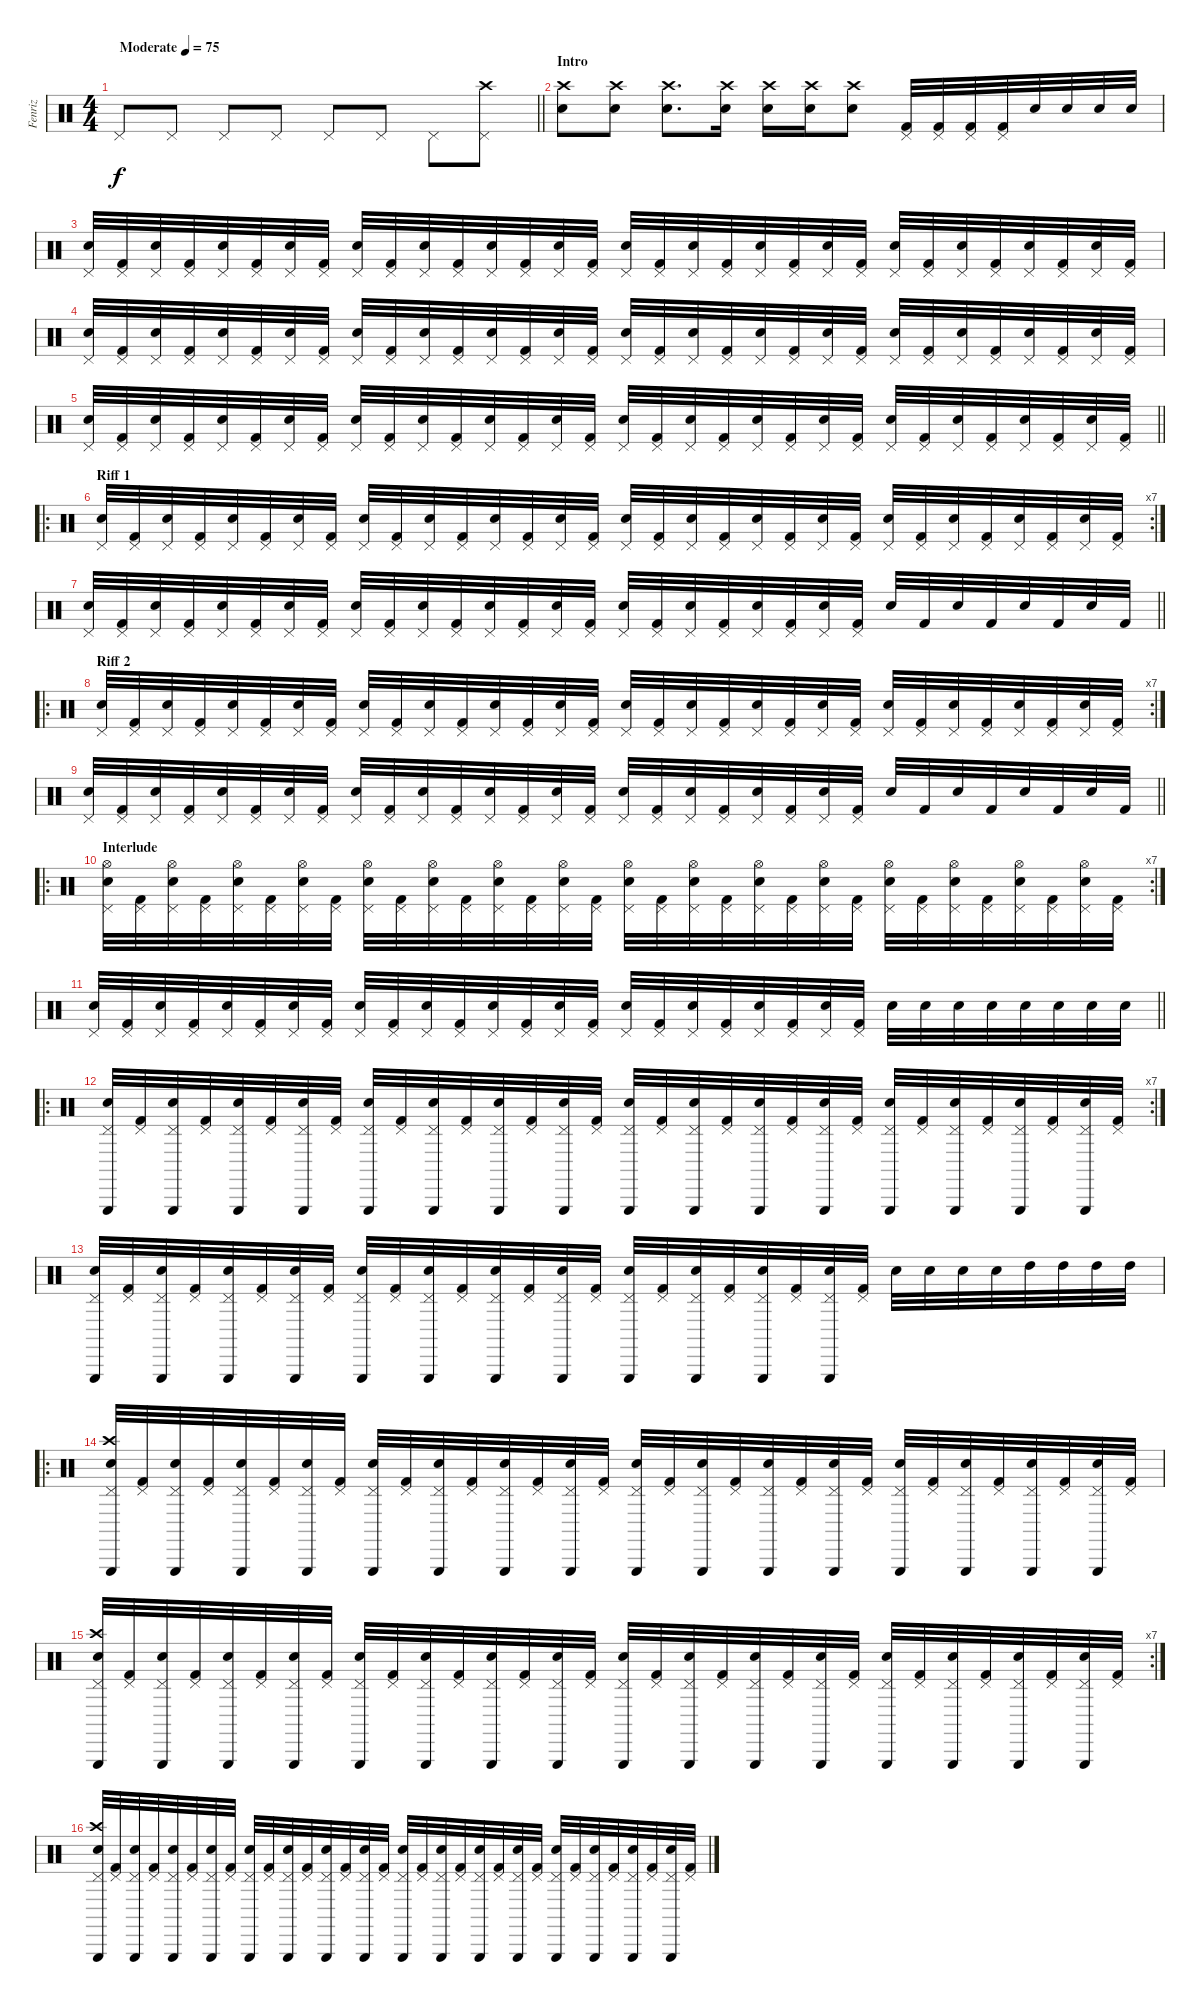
\track ("Fenriz" "Fenriz") {instrument percussion}
\staff {score}
\articulation defaults
\ts (4 4)
\tempo (75 "Moderate")
\clef neutral
\barLineRight lightlight
\ks c "Pedal Hi-Hat (hit)".8{dy f} "Pedal Hi-Hat (hit)".8 "Pedal Hi-Hat (hit)".8 "Pedal Hi-Hat (hit)".8 "Pedal Hi-Hat (hit)".8 "Pedal Hi-Hat (hit)".8 "Pedal Hi-Hat (hit)".8
("Pedal Hi-Hat (hit)" "Crash high (hit)").8 |
\section ("" "Intro")
("Snare (hit) 2" "Crash high (hit)").8 ("Snare (hit) 2" "Crash high (hit)").8 ("Snare (hit) 2" "Crash high (hit)").8{d} ("Crash high (hit)" "Snare (hit) 2").16 ("Crash high (hit)" "Snare (hit) 2").16 ("Crash high (hit)" "Snare (hit) 2").16 ("Crash high (hit)" "Snare (hit) 2").8 ("Kick (hit) 2" "Pedal Hi-Hat (hit)").32 ("Kick (hit) 2" "Pedal Hi-Hat (hit)").32 ("Kick (hit) 2" "Pedal Hi-Hat (hit)").32 ("Kick (hit) 2" "Pedal Hi-Hat (hit)").32 "Snare (hit) 2".32 "Snare (hit) 2".32 "Snare (hit) 2".32 "Snare (hit) 2".32 |
("Pedal Hi-Hat (hit)" "Snare (hit) 2").32 ("Pedal Hi-Hat (hit)" "Kick (hit) 2").32 ("Pedal Hi-Hat (hit)" "Snare (hit) 2").32 ("Pedal Hi-Hat (hit)" "Kick (hit) 2").32 ("Pedal Hi-Hat (hit)" "Snare (hit) 2").32 ("Pedal Hi-Hat (hit)" "Kick (hit) 2").32 ("Pedal Hi-Hat (hit)" "Snare (hit) 2").32 ("Pedal Hi-Hat (hit)" "Kick (hit) 2").32 ("Pedal Hi-Hat (hit)" "Snare (hit) 2").32 ("Pedal Hi-Hat (hit)" "Kick (hit) 2").32 ("Pedal Hi-Hat (hit)" "Snare (hit) 2").32 ("Pedal Hi-Hat (hit)" "Kick (hit) 2").32 ("Pedal Hi-Hat (hit)" "Snare (hit) 2").32 ("Pedal Hi-Hat (hit)" "Kick (hit) 2").32 ("Pedal Hi-Hat (hit)" "Snare (hit) 2").32 ("Pedal Hi-Hat (hit)" "Kick (hit) 2").32 ("Pedal Hi-Hat (hit)" "Snare (hit) 2").32 ("Pedal Hi-Hat (hit)" "Kick (hit) 2").32 ("Pedal Hi-Hat (hit)" "Snare (hit) 2").32 ("Pedal Hi-Hat (hit)" "Kick (hit) 2").32 ("Pedal Hi-Hat (hit)" "Snare (hit) 2").32 ("Pedal Hi-Hat (hit)" "Kick (hit) 2").32 ("Pedal Hi-Hat (hit)" "Snare (hit) 2").32 ("Pedal Hi-Hat (hit)" "Kick (hit) 2").32 ("Pedal Hi-Hat (hit)" "Snare (hit) 2").32 ("Pedal Hi-Hat (hit)" "Kick (hit) 2").32 ("Pedal Hi-Hat (hit)" "Snare (hit) 2").32 ("Pedal Hi-Hat (hit)" "Kick (hit) 2").32 ("Pedal Hi-Hat (hit)" "Snare (hit) 2").32 ("Pedal Hi-Hat (hit)" "Kick (hit) 2").32 ("Pedal Hi-Hat (hit)" "Snare (hit) 2").32 ("Pedal Hi-Hat (hit)" "Kick (hit) 2").32 |
("Pedal Hi-Hat (hit)" "Snare (hit) 2").32 ("Pedal Hi-Hat (hit)" "Kick (hit) 2").32 ("Pedal Hi-Hat (hit)" "Snare (hit) 2").32 ("Pedal Hi-Hat (hit)" "Kick (hit) 2").32 ("Pedal Hi-Hat (hit)" "Snare (hit) 2").32 ("Pedal Hi-Hat (hit)" "Kick (hit) 2").32 ("Pedal Hi-Hat (hit)" "Snare (hit) 2").32 ("Pedal Hi-Hat (hit)" "Kick (hit) 2").32 ("Pedal Hi-Hat (hit)" "Snare (hit) 2").32 ("Pedal Hi-Hat (hit)" "Kick (hit) 2").32 ("Pedal Hi-Hat (hit)" "Snare (hit) 2").32 ("Pedal Hi-Hat (hit)" "Kick (hit) 2").32 ("Pedal Hi-Hat (hit)" "Snare (hit) 2").32 ("Pedal Hi-Hat (hit)" "Kick (hit) 2").32 ("Pedal Hi-Hat (hit)" "Snare (hit) 2").32 ("Pedal Hi-Hat (hit)" "Kick (hit) 2").32 ("Pedal Hi-Hat (hit)" "Snare (hit) 2").32 ("Pedal Hi-Hat (hit)" "Kick (hit) 2").32 ("Pedal Hi-Hat (hit)" "Snare (hit) 2").32 ("Pedal Hi-Hat (hit)" "Kick (hit) 2").32 ("Pedal Hi-Hat (hit)" "Snare (hit) 2").32 ("Pedal Hi-Hat (hit)" "Kick (hit) 2").32 ("Pedal Hi-Hat (hit)" "Snare (hit) 2").32 ("Pedal Hi-Hat (hit)" "Kick (hit) 2").32 ("Pedal Hi-Hat (hit)" "Snare (hit) 2").32 ("Pedal Hi-Hat (hit)" "Kick (hit) 2").32 ("Pedal Hi-Hat (hit)" "Snare (hit) 2").32 ("Pedal Hi-Hat (hit)" "Kick (hit) 2").32 ("Pedal Hi-Hat (hit)" "Snare (hit) 2").32 ("Pedal Hi-Hat (hit)" "Kick (hit) 2").32 ("Pedal Hi-Hat (hit)" "Snare (hit) 2").32 ("Pedal Hi-Hat (hit)" "Kick (hit) 2").32 |
\barLineRight lightlight
("Pedal Hi-Hat (hit)" "Snare (hit) 2").32 ("Pedal Hi-Hat (hit)" "Kick (hit) 2").32 ("Pedal Hi-Hat (hit)" "Snare (hit) 2").32 ("Pedal Hi-Hat (hit)" "Kick (hit) 2").32 ("Pedal Hi-Hat (hit)" "Snare (hit) 2").32 ("Pedal Hi-Hat (hit)" "Kick (hit) 2").32 ("Pedal Hi-Hat (hit)" "Snare (hit) 2").32 ("Pedal Hi-Hat (hit)" "Kick (hit) 2").32 ("Pedal Hi-Hat (hit)" "Snare (hit) 2").32 ("Pedal Hi-Hat (hit)" "Kick (hit) 2").32 ("Pedal Hi-Hat (hit)" "Snare (hit) 2").32 ("Pedal Hi-Hat (hit)" "Kick (hit) 2").32 ("Pedal Hi-Hat (hit)" "Snare (hit) 2").32 ("Pedal Hi-Hat (hit)" "Kick (hit) 2").32 ("Pedal Hi-Hat (hit)" "Snare (hit) 2").32 ("Pedal Hi-Hat (hit)" "Kick (hit) 2").32 ("Pedal Hi-Hat (hit)" "Snare (hit) 2").32 ("Pedal Hi-Hat (hit)" "Kick (hit) 2").32 ("Pedal Hi-Hat (hit)" "Snare (hit) 2").32 ("Pedal Hi-Hat (hit)" "Kick (hit) 2").32 ("Pedal Hi-Hat (hit)" "Snare (hit) 2").32 ("Pedal Hi-Hat (hit)" "Kick (hit) 2").32 ("Pedal Hi-Hat (hit)" "Snare (hit) 2").32 ("Pedal Hi-Hat (hit)" "Kick (hit) 2").32 ("Pedal Hi-Hat (hit)" "Snare (hit) 2").32 ("Pedal Hi-Hat (hit)" "Kick (hit) 2").32 ("Pedal Hi-Hat (hit)" "Snare (hit) 2").32 ("Pedal Hi-Hat (hit)" "Kick (hit) 2").32 ("Pedal Hi-Hat (hit)" "Snare (hit) 2").32 ("Pedal Hi-Hat (hit)" "Kick (hit) 2").32 ("Pedal Hi-Hat (hit)" "Snare (hit) 2").32 ("Pedal Hi-Hat (hit)" "Kick (hit) 2").32 |
\ro
\rc 7
\section ("" "Riff 1")
("Pedal Hi-Hat (hit)" "Snare (hit) 2").32 ("Pedal Hi-Hat (hit)" "Kick (hit) 2").32 ("Pedal Hi-Hat (hit)" "Snare (hit) 2").32 ("Pedal Hi-Hat (hit)" "Kick (hit) 2").32 ("Pedal Hi-Hat (hit)" "Snare (hit) 2").32 ("Pedal Hi-Hat (hit)" "Kick (hit) 2").32 ("Pedal Hi-Hat (hit)" "Snare (hit) 2").32 ("Pedal Hi-Hat (hit)" "Kick (hit) 2").32 ("Pedal Hi-Hat (hit)" "Snare (hit) 2").32 ("Pedal Hi-Hat (hit)" "Kick (hit) 2").32 ("Pedal Hi-Hat (hit)" "Snare (hit) 2").32 ("Pedal Hi-Hat (hit)" "Kick (hit) 2").32 ("Pedal Hi-Hat (hit)" "Snare (hit) 2").32 ("Pedal Hi-Hat (hit)" "Kick (hit) 2").32 ("Pedal Hi-Hat (hit)" "Snare (hit) 2").32 ("Pedal Hi-Hat (hit)" "Kick (hit) 2").32 ("Pedal Hi-Hat (hit)" "Snare (hit) 2").32 ("Pedal Hi-Hat (hit)" "Kick (hit) 2").32 ("Pedal Hi-Hat (hit)" "Snare (hit) 2").32 ("Pedal Hi-Hat (hit)" "Kick (hit) 2").32 ("Pedal Hi-Hat (hit)" "Snare (hit) 2").32 ("Pedal Hi-Hat (hit)" "Kick (hit) 2").32 ("Pedal Hi-Hat (hit)" "Snare (hit) 2").32 ("Pedal Hi-Hat (hit)" "Kick (hit) 2").32 ("Pedal Hi-Hat (hit)" "Snare (hit) 2").32 ("Pedal Hi-Hat (hit)" "Kick (hit) 2").32 ("Pedal Hi-Hat (hit)" "Snare (hit) 2").32 ("Pedal Hi-Hat (hit)" "Kick (hit) 2").32 ("Pedal Hi-Hat (hit)" "Snare (hit) 2").32 ("Pedal Hi-Hat (hit)" "Kick (hit) 2").32 ("Pedal Hi-Hat (hit)" "Snare (hit) 2").32 ("Pedal Hi-Hat (hit)" "Kick (hit) 2").32 |
\barLineRight lightlight
("Pedal Hi-Hat (hit)" "Snare (hit) 2").32 ("Pedal Hi-Hat (hit)" "Kick (hit) 2").32 ("Pedal Hi-Hat (hit)" "Snare (hit) 2").32 ("Pedal Hi-Hat (hit)" "Kick (hit) 2").32 ("Pedal Hi-Hat (hit)" "Snare (hit) 2").32 ("Pedal Hi-Hat (hit)" "Kick (hit) 2").32 ("Pedal Hi-Hat (hit)" "Snare (hit) 2").32 ("Pedal Hi-Hat (hit)" "Kick (hit) 2").32 ("Pedal Hi-Hat (hit)" "Snare (hit) 2").32 ("Pedal Hi-Hat (hit)" "Kick (hit) 2").32 ("Pedal Hi-Hat (hit)" "Snare (hit) 2").32 ("Pedal Hi-Hat (hit)" "Kick (hit) 2").32 ("Pedal Hi-Hat (hit)" "Snare (hit) 2").32 ("Pedal Hi-Hat (hit)" "Kick (hit) 2").32 ("Pedal Hi-Hat (hit)" "Snare (hit) 2").32 ("Pedal Hi-Hat (hit)" "Kick (hit) 2").32 ("Pedal Hi-Hat (hit)" "Snare (hit) 2").32 ("Pedal Hi-Hat (hit)" "Kick (hit) 2").32 ("Pedal Hi-Hat (hit)" "Snare (hit) 2").32 ("Pedal Hi-Hat (hit)" "Kick (hit) 2").32 ("Pedal Hi-Hat (hit)" "Snare (hit) 2").32 ("Pedal Hi-Hat (hit)" "Kick (hit) 2").32 ("Pedal Hi-Hat (hit)" "Snare (hit) 2").32 ("Pedal Hi-Hat (hit)" "Kick (hit) 2").32 "Snare (hit) 2".32 "Kick (hit) 2".32 "Snare (hit) 2".32 "Kick (hit) 2".32 "Snare (hit) 2".32 "Kick (hit) 2".32 "Snare (hit) 2".32 "Kick (hit) 2".32 |
\ro
\rc 7
\section ("" "Riff 2")
("Pedal Hi-Hat (hit)" "Snare (hit) 2").32 ("Pedal Hi-Hat (hit)" "Kick (hit) 2").32 ("Pedal Hi-Hat (hit)" "Snare (hit) 2").32 ("Pedal Hi-Hat (hit)" "Kick (hit) 2").32 ("Pedal Hi-Hat (hit)" "Snare (hit) 2").32 ("Pedal Hi-Hat (hit)" "Kick (hit) 2").32 ("Pedal Hi-Hat (hit)" "Snare (hit) 2").32 ("Pedal Hi-Hat (hit)" "Kick (hit) 2").32 ("Pedal Hi-Hat (hit)" "Snare (hit) 2").32 ("Pedal Hi-Hat (hit)" "Kick (hit) 2").32 ("Pedal Hi-Hat (hit)" "Snare (hit) 2").32 ("Pedal Hi-Hat (hit)" "Kick (hit) 2").32 ("Pedal Hi-Hat (hit)" "Snare (hit) 2").32 ("Pedal Hi-Hat (hit)" "Kick (hit) 2").32 ("Pedal Hi-Hat (hit)" "Snare (hit) 2").32 ("Pedal Hi-Hat (hit)" "Kick (hit) 2").32 ("Pedal Hi-Hat (hit)" "Snare (hit) 2").32 ("Pedal Hi-Hat (hit)" "Kick (hit) 2").32 ("Pedal Hi-Hat (hit)" "Snare (hit) 2").32 ("Pedal Hi-Hat (hit)" "Kick (hit) 2").32 ("Pedal Hi-Hat (hit)" "Snare (hit) 2").32 ("Pedal Hi-Hat (hit)" "Kick (hit) 2").32 ("Pedal Hi-Hat (hit)" "Snare (hit) 2").32 ("Pedal Hi-Hat (hit)" "Kick (hit) 2").32 ("Pedal Hi-Hat (hit)" "Snare (hit) 2").32 ("Pedal Hi-Hat (hit)" "Kick (hit) 2").32 ("Pedal Hi-Hat (hit)" "Snare (hit) 2").32 ("Pedal Hi-Hat (hit)" "Kick (hit) 2").32 ("Pedal Hi-Hat (hit)" "Snare (hit) 2").32 ("Pedal Hi-Hat (hit)" "Kick (hit) 2").32 ("Pedal Hi-Hat (hit)" "Snare (hit) 2").32 ("Pedal Hi-Hat (hit)" "Kick (hit) 2").32 |
\barLineRight lightlight
("Pedal Hi-Hat (hit)" "Snare (hit) 2").32 ("Pedal Hi-Hat (hit)" "Kick (hit) 2").32 ("Pedal Hi-Hat (hit)" "Snare (hit) 2").32 ("Pedal Hi-Hat (hit)" "Kick (hit) 2").32 ("Pedal Hi-Hat (hit)" "Snare (hit) 2").32 ("Pedal Hi-Hat (hit)" "Kick (hit) 2").32 ("Pedal Hi-Hat (hit)" "Snare (hit) 2").32 ("Pedal Hi-Hat (hit)" "Kick (hit) 2").32 ("Pedal Hi-Hat (hit)" "Snare (hit) 2").32 ("Pedal Hi-Hat (hit)" "Kick (hit) 2").32 ("Pedal Hi-Hat (hit)" "Snare (hit) 2").32 ("Pedal Hi-Hat (hit)" "Kick (hit) 2").32 ("Pedal Hi-Hat (hit)" "Snare (hit) 2").32 ("Pedal Hi-Hat (hit)" "Kick (hit) 2").32 ("Pedal Hi-Hat (hit)" "Snare (hit) 2").32 ("Pedal Hi-Hat (hit)" "Kick (hit) 2").32 ("Pedal Hi-Hat (hit)" "Snare (hit) 2").32 ("Pedal Hi-Hat (hit)" "Kick (hit) 2").32 ("Pedal Hi-Hat (hit)" "Snare (hit) 2").32 ("Pedal Hi-Hat (hit)" "Kick (hit) 2").32 ("Pedal Hi-Hat (hit)" "Snare (hit) 2").32 ("Pedal Hi-Hat (hit)" "Kick (hit) 2").32 ("Pedal Hi-Hat (hit)" "Snare (hit) 2").32 ("Pedal Hi-Hat (hit)" "Kick (hit) 2").32 "Snare (hit) 2".32 "Kick (hit) 2".32 "Snare (hit) 2".32 "Kick (hit) 2".32 "Snare (hit) 2".32 "Kick (hit) 2".32 "Snare (hit) 2".32 "Kick (hit) 2".32 |
\ro
\rc 7
\section ("" "Interlude")
("Pedal Hi-Hat (hit)" "Snare (hit) 2" "Hi-Hat (open)").32 ("Pedal Hi-Hat (hit)" "Kick (hit) 2").32 ("Pedal Hi-Hat (hit)" "Snare (hit) 2" "Hi-Hat (open)").32 ("Pedal Hi-Hat (hit)" "Kick (hit) 2").32 ("Pedal Hi-Hat (hit)" "Snare (hit) 2" "Hi-Hat (open)").32 ("Pedal Hi-Hat (hit)" "Kick (hit) 2").32 ("Pedal Hi-Hat (hit)" "Snare (hit) 2" "Hi-Hat (open)").32 ("Pedal Hi-Hat (hit)" "Kick (hit) 2").32 ("Pedal Hi-Hat (hit)" "Snare (hit) 2" "Hi-Hat (open)").32 ("Pedal Hi-Hat (hit)" "Kick (hit) 2").32 ("Pedal Hi-Hat (hit)" "Snare (hit) 2" "Hi-Hat (open)").32 ("Pedal Hi-Hat (hit)" "Kick (hit) 2").32 ("Pedal Hi-Hat (hit)" "Snare (hit) 2" "Hi-Hat (open)").32 ("Pedal Hi-Hat (hit)" "Kick (hit) 2").32 ("Pedal Hi-Hat (hit)" "Snare (hit) 2" "Hi-Hat (open)").32 ("Pedal Hi-Hat (hit)" "Kick (hit) 2").32 ("Pedal Hi-Hat (hit)" "Snare (hit) 2" "Hi-Hat (open)").32 ("Pedal Hi-Hat (hit)" "Kick (hit) 2").32 ("Pedal Hi-Hat (hit)" "Snare (hit) 2" "Hi-Hat (open)").32 ("Pedal Hi-Hat (hit)" "Kick (hit) 2").32 ("Pedal Hi-Hat (hit)" "Snare (hit) 2" "Hi-Hat (open)").32 ("Pedal Hi-Hat (hit)" "Kick (hit) 2").32 ("Pedal Hi-Hat (hit)" "Snare (hit) 2" "Hi-Hat (open)").32 ("Pedal Hi-Hat (hit)" "Kick (hit) 2").32 ("Pedal Hi-Hat (hit)" "Snare (hit) 2" "Hi-Hat (open)").32 ("Pedal Hi-Hat (hit)" "Kick (hit) 2").32 ("Pedal Hi-Hat (hit)" "Snare (hit) 2" "Hi-Hat (open)").32 ("Pedal Hi-Hat (hit)" "Kick (hit) 2").32 ("Pedal Hi-Hat (hit)" "Snare (hit) 2" "Hi-Hat (open)").32 ("Pedal Hi-Hat (hit)" "Kick (hit) 2").32 ("Pedal Hi-Hat (hit)" "Snare (hit) 2" "Hi-Hat (open)").32 ("Pedal Hi-Hat (hit)" "Kick (hit) 2").32 |
\barLineRight lightlight
("Pedal Hi-Hat (hit)" "Snare (hit) 2").32 ("Pedal Hi-Hat (hit)" "Kick (hit) 2").32 ("Pedal Hi-Hat (hit)" "Snare (hit) 2").32 ("Pedal Hi-Hat (hit)" "Kick (hit) 2").32 ("Pedal Hi-Hat (hit)" "Snare (hit) 2").32 ("Pedal Hi-Hat (hit)" "Kick (hit) 2").32 ("Pedal Hi-Hat (hit)" "Snare (hit) 2").32 ("Pedal Hi-Hat (hit)" "Kick (hit) 2").32 ("Pedal Hi-Hat (hit)" "Snare (hit) 2").32 ("Pedal Hi-Hat (hit)" "Kick (hit) 2").32 ("Pedal Hi-Hat (hit)" "Snare (hit) 2").32 ("Pedal Hi-Hat (hit)" "Kick (hit) 2").32 ("Pedal Hi-Hat (hit)" "Snare (hit) 2").32 ("Pedal Hi-Hat (hit)" "Kick (hit) 2").32 ("Pedal Hi-Hat (hit)" "Snare (hit) 2").32 ("Pedal Hi-Hat (hit)" "Kick (hit) 2").32 ("Pedal Hi-Hat (hit)" "Snare (hit) 2").32 ("Pedal Hi-Hat (hit)" "Kick (hit) 2").32 ("Pedal Hi-Hat (hit)" "Snare (hit) 2").32 ("Pedal Hi-Hat (hit)" "Kick (hit) 2").32 ("Pedal Hi-Hat (hit)" "Snare (hit) 2").32 ("Pedal Hi-Hat (hit)" "Kick (hit) 2").32 ("Pedal Hi-Hat (hit)" "Snare (hit) 2").32 ("Pedal Hi-Hat (hit)" "Kick (hit) 2").32 "Snare (hit) 2".32 "Snare (hit) 2".32 "Snare (hit) 2".32 "Snare (hit) 2".32 "Snare (hit) 2".32 "Snare (hit) 2".32 "Snare (hit) 2".32 "Snare (hit) 2".32 |
\ro
\rc 7
\section ("" "")
("Pedal Hi-Hat (hit)" "Snare (hit) 2" "Triangle (hit)").32 ("Pedal Hi-Hat (hit)" "Kick (hit) 2").32 ("Pedal Hi-Hat (hit)" "Snare (hit) 2" "Triangle (hit)").32 ("Pedal Hi-Hat (hit)" "Kick (hit) 2").32 ("Pedal Hi-Hat (hit)" "Snare (hit) 2" "Triangle (hit)").32 ("Pedal Hi-Hat (hit)" "Kick (hit) 2").32 ("Pedal Hi-Hat (hit)" "Snare (hit) 2" "Triangle (hit)").32 ("Pedal Hi-Hat (hit)" "Kick (hit) 2").32 ("Pedal Hi-Hat (hit)" "Snare (hit) 2" "Triangle (hit)").32 ("Pedal Hi-Hat (hit)" "Kick (hit) 2").32 ("Pedal Hi-Hat (hit)" "Snare (hit) 2" "Triangle (hit)").32 ("Pedal Hi-Hat (hit)" "Kick (hit) 2").32 ("Pedal Hi-Hat (hit)" "Snare (hit) 2" "Triangle (hit)").32 ("Pedal Hi-Hat (hit)" "Kick (hit) 2").32 ("Pedal Hi-Hat (hit)" "Snare (hit) 2" "Triangle (hit)").32 ("Pedal Hi-Hat (hit)" "Kick (hit) 2").32 ("Pedal Hi-Hat (hit)" "Snare (hit) 2" "Triangle (hit)").32 ("Pedal Hi-Hat (hit)" "Kick (hit) 2").32 ("Pedal Hi-Hat (hit)" "Snare (hit) 2" "Triangle (hit)").32 ("Pedal Hi-Hat (hit)" "Kick (hit) 2").32 ("Pedal Hi-Hat (hit)" "Snare (hit) 2" "Triangle (hit)").32 ("Pedal Hi-Hat (hit)" "Kick (hit) 2").32 ("Pedal Hi-Hat (hit)" "Snare (hit) 2" "Triangle (hit)").32 ("Pedal Hi-Hat (hit)" "Kick (hit) 2").32 ("Pedal Hi-Hat (hit)" "Snare (hit) 2" "Triangle (hit)").32 ("Pedal Hi-Hat (hit)" "Kick (hit) 2").32 ("Pedal Hi-Hat (hit)" "Snare (hit) 2" "Triangle (hit)").32 ("Pedal Hi-Hat (hit)" "Kick (hit) 2").32 ("Pedal Hi-Hat (hit)" "Snare (hit) 2" "Triangle (hit)").32 ("Pedal Hi-Hat (hit)" "Kick (hit) 2").32 ("Pedal Hi-Hat (hit)" "Snare (hit) 2" "Triangle (hit)").32 ("Pedal Hi-Hat (hit)" "Kick (hit) 2").32 |
("Pedal Hi-Hat (hit)" "Snare (hit) 2" "Triangle (hit)").32 ("Pedal Hi-Hat (hit)" "Kick (hit) 2").32 ("Pedal Hi-Hat (hit)" "Snare (hit) 2" "Triangle (hit)").32 ("Pedal Hi-Hat (hit)" "Kick (hit) 2").32 ("Pedal Hi-Hat (hit)" "Snare (hit) 2" "Triangle (hit)").32 ("Pedal Hi-Hat (hit)" "Kick (hit) 2").32 ("Pedal Hi-Hat (hit)" "Snare (hit) 2" "Triangle (hit)").32 ("Pedal Hi-Hat (hit)" "Kick (hit) 2").32 ("Pedal Hi-Hat (hit)" "Snare (hit) 2" "Triangle (hit)").32 ("Pedal Hi-Hat (hit)" "Kick (hit) 2").32 ("Pedal Hi-Hat (hit)" "Snare (hit) 2" "Triangle (hit)").32 ("Pedal Hi-Hat (hit)" "Kick (hit) 2").32 ("Pedal Hi-Hat (hit)" "Snare (hit) 2" "Triangle (hit)").32 ("Pedal Hi-Hat (hit)" "Kick (hit) 2").32 ("Pedal Hi-Hat (hit)" "Snare (hit) 2" "Triangle (hit)").32 ("Pedal Hi-Hat (hit)" "Kick (hit) 2").32 ("Pedal Hi-Hat (hit)" "Snare (hit) 2" "Triangle (hit)").32 ("Pedal Hi-Hat (hit)" "Kick (hit) 2").32 ("Pedal Hi-Hat (hit)" "Snare (hit) 2" "Triangle (hit)").32 ("Pedal Hi-Hat (hit)" "Kick (hit) 2").32 ("Pedal Hi-Hat (hit)" "Snare (hit) 2" "Triangle (hit)").32 ("Pedal Hi-Hat (hit)" "Kick (hit) 2").32 ("Pedal Hi-Hat (hit)" "Snare (hit) 2" "Triangle (hit)").32 ("Pedal Hi-Hat (hit)" "Kick (hit) 2").32 "Snare (hit) 2".32 "Snare (hit) 2".32 "Snare (hit) 2".32 "Snare (hit) 2".32 "High Tom (hit)".32 "High Tom (hit)".32 "High Tom (hit)".32 "High Tom (hit)".32 |
\ro
("Crash high (hit)" "Pedal Hi-Hat (hit)" "Snare (hit) 2" "Triangle (hit)").32 ("Pedal Hi-Hat (hit)" "Kick (hit) 2").32 ("Pedal Hi-Hat (hit)" "Snare (hit) 2" "Triangle (hit)").32 ("Pedal Hi-Hat (hit)" "Kick (hit) 2").32 ("Pedal Hi-Hat (hit)" "Snare (hit) 2" "Triangle (hit)").32 ("Pedal Hi-Hat (hit)" "Kick (hit) 2").32 ("Pedal Hi-Hat (hit)" "Snare (hit) 2" "Triangle (hit)").32 ("Pedal Hi-Hat (hit)" "Kick (hit) 2").32 ("Pedal Hi-Hat (hit)" "Snare (hit) 2" "Triangle (hit)").32 ("Pedal Hi-Hat (hit)" "Kick (hit) 2").32 ("Pedal Hi-Hat (hit)" "Snare (hit) 2" "Triangle (hit)").32 ("Pedal Hi-Hat (hit)" "Kick (hit) 2").32 ("Pedal Hi-Hat (hit)" "Snare (hit) 2" "Triangle (hit)").32 ("Pedal Hi-Hat (hit)" "Kick (hit) 2").32 ("Pedal Hi-Hat (hit)" "Snare (hit) 2" "Triangle (hit)").32 ("Pedal Hi-Hat (hit)" "Kick (hit) 2").32 ("Pedal Hi-Hat (hit)" "Snare (hit) 2" "Triangle (hit)").32 ("Pedal Hi-Hat (hit)" "Kick (hit) 2").32 ("Pedal Hi-Hat (hit)" "Snare (hit) 2" "Triangle (hit)").32 ("Pedal Hi-Hat (hit)" "Kick (hit) 2").32 ("Pedal Hi-Hat (hit)" "Snare (hit) 2" "Triangle (hit)").32 ("Pedal Hi-Hat (hit)" "Kick (hit) 2").32 ("Pedal Hi-Hat (hit)" "Snare (hit) 2" "Triangle (hit)").32 ("Pedal Hi-Hat (hit)" "Kick (hit) 2").32 ("Pedal Hi-Hat (hit)" "Snare (hit) 2" "Triangle (hit)").32 ("Pedal Hi-Hat (hit)" "Kick (hit) 2").32 ("Pedal Hi-Hat (hit)" "Snare (hit) 2" "Triangle (hit)").32 ("Pedal Hi-Hat (hit)" "Kick (hit) 2").32 ("Pedal Hi-Hat (hit)" "Snare (hit) 2" "Triangle (hit)").32 ("Pedal Hi-Hat (hit)" "Kick (hit) 2").32 ("Pedal Hi-Hat (hit)" "Snare (hit) 2" "Triangle (hit)").32 ("Pedal Hi-Hat (hit)" "Kick (hit) 2").32 |
\rc 7
("Crash high (hit)" "Pedal Hi-Hat (hit)" "Snare (hit) 2" "Triangle (hit)").32 ("Pedal Hi-Hat (hit)" "Kick (hit) 2").32 ("Pedal Hi-Hat (hit)" "Snare (hit) 2" "Triangle (hit)").32 ("Pedal Hi-Hat (hit)" "Kick (hit) 2").32 ("Pedal Hi-Hat (hit)" "Snare (hit) 2" "Triangle (hit)").32 ("Pedal Hi-Hat (hit)" "Kick (hit) 2").32 ("Pedal Hi-Hat (hit)" "Snare (hit) 2" "Triangle (hit)").32 ("Pedal Hi-Hat (hit)" "Kick (hit) 2").32 ("Pedal Hi-Hat (hit)" "Snare (hit) 2" "Triangle (hit)").32 ("Pedal Hi-Hat (hit)" "Kick (hit) 2").32 ("Pedal Hi-Hat (hit)" "Snare (hit) 2" "Triangle (hit)").32 ("Pedal Hi-Hat (hit)" "Kick (hit) 2").32 ("Pedal Hi-Hat (hit)" "Snare (hit) 2" "Triangle (hit)").32 ("Pedal Hi-Hat (hit)" "Kick (hit) 2").32 ("Pedal Hi-Hat (hit)" "Snare (hit) 2" "Triangle (hit)").32 ("Pedal Hi-Hat (hit)" "Kick (hit) 2").32 ("Pedal Hi-Hat (hit)" "Snare (hit) 2" "Triangle (hit)").32 ("Pedal Hi-Hat (hit)" "Kick (hit) 2").32 ("Pedal Hi-Hat (hit)" "Snare (hit) 2" "Triangle (hit)").32 ("Pedal Hi-Hat (hit)" "Kick (hit) 2").32 ("Pedal Hi-Hat (hit)" "Snare (hit) 2" "Triangle (hit)").32 ("Pedal Hi-Hat (hit)" "Kick (hit) 2").32 ("Pedal Hi-Hat (hit)" "Snare (hit) 2" "Triangle (hit)").32 ("Pedal Hi-Hat (hit)" "Kick (hit) 2").32 ("Pedal Hi-Hat (hit)" "Snare (hit) 2" "Triangle (hit)").32 ("Pedal Hi-Hat (hit)" "Kick (hit) 2").32 ("Pedal Hi-Hat (hit)" "Snare (hit) 2" "Triangle (hit)").32 ("Pedal Hi-Hat (hit)" "Kick (hit) 2").32 ("Pedal Hi-Hat (hit)" "Snare (hit) 2" "Triangle (hit)").32 ("Pedal Hi-Hat (hit)" "Kick (hit) 2").32 ("Pedal Hi-Hat (hit)" "Snare (hit) 2" "Triangle (hit)").32 ("Pedal Hi-Hat (hit)" "Kick (hit) 2").32 |
("Crash high (hit)" "Pedal Hi-Hat (hit)" "Snare (hit) 2" "Triangle (hit)").32 ("Pedal Hi-Hat (hit)" "Kick (hit) 2").32 ("Pedal Hi-Hat (hit)" "Snare (hit) 2" "Triangle (hit)").32 ("Pedal Hi-Hat (hit)" "Kick (hit) 2").32 ("Pedal Hi-Hat (hit)" "Snare (hit) 2" "Triangle (hit)").32 ("Pedal Hi-Hat (hit)" "Kick (hit) 2").32 ("Pedal Hi-Hat (hit)" "Snare (hit) 2" "Triangle (hit)").32 ("Pedal Hi-Hat (hit)" "Kick (hit) 2").32 ("Pedal Hi-Hat (hit)" "Snare (hit) 2" "Triangle (hit)").32 ("Pedal Hi-Hat (hit)" "Kick (hit) 2").32 ("Pedal Hi-Hat (hit)" "Snare (hit) 2" "Triangle (hit)").32 ("Pedal Hi-Hat (hit)" "Kick (hit) 2").32 ("Pedal Hi-Hat (hit)" "Snare (hit) 2" "Triangle (hit)").32 ("Pedal Hi-Hat (hit)" "Kick (hit) 2").32 ("Pedal Hi-Hat (hit)" "Snare (hit) 2" "Triangle (hit)").32 ("Pedal Hi-Hat (hit)" "Kick (hit) 2").32 ("Pedal Hi-Hat (hit)" "Snare (hit) 2" "Triangle (hit)").32 ("Pedal Hi-Hat (hit)" "Kick (hit) 2").32 ("Pedal Hi-Hat (hit)" "Snare (hit) 2" "Triangle (hit)").32 ("Pedal Hi-Hat (hit)" "Kick (hit) 2").32 ("Pedal Hi-Hat (hit)" "Snare (hit) 2" "Triangle (hit)").32 ("Pedal Hi-Hat (hit)" "Kick (hit) 2").32 ("Pedal Hi-Hat (hit)" "Snare (hit) 2" "Triangle (hit)").32 ("Pedal Hi-Hat (hit)" "Kick (hit) 2").32 ("Pedal Hi-Hat (hit)" "Snare (hit) 2" "Triangle (hit)").32 ("Pedal Hi-Hat (hit)" "Kick (hit) 2").32 ("Pedal Hi-Hat (hit)" "Snare (hit) 2" "Triangle (hit)").32 ("Pedal Hi-Hat (hit)" "Kick (hit) 2").32 ("Pedal Hi-Hat (hit)" "Snare (hit) 2" "Triangle (hit)").32 ("Pedal Hi-Hat (hit)" "Kick (hit) 2").32 ("Pedal Hi-Hat (hit)" "Snare (hit) 2" "Triangle (hit)").32 ("Pedal Hi-Hat (hit)" "Kick (hit) 2").32
